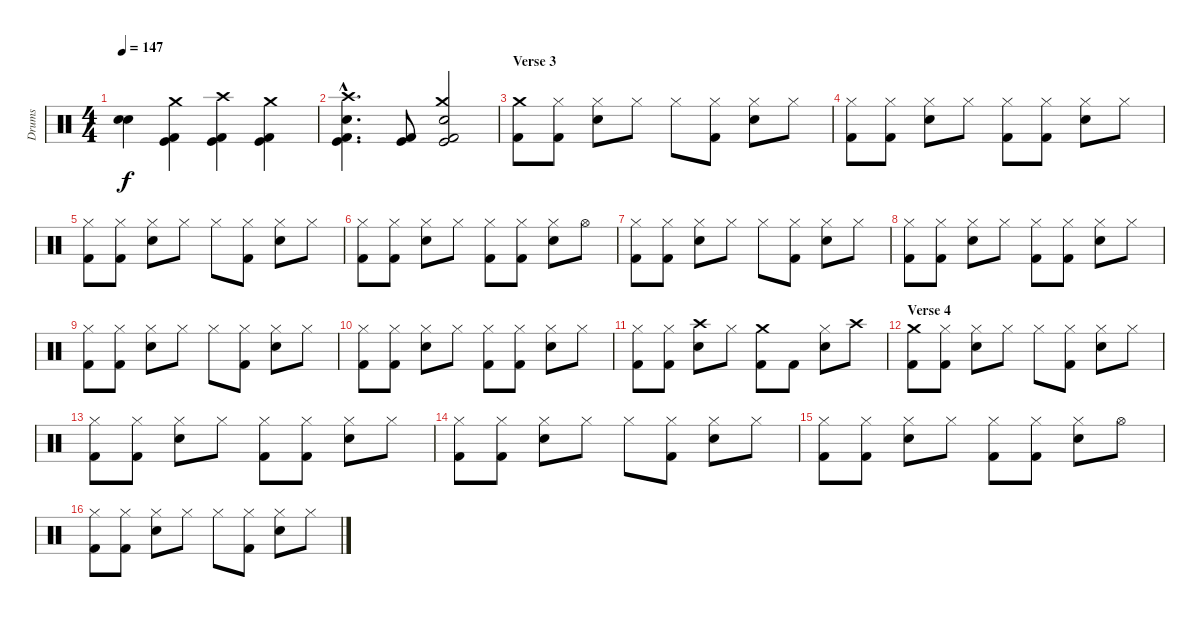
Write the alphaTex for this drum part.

\track ("Drums" "Drums") {instrument percussion}
\staff {score}
\articulation defaults
\ts (4 4)
\tempo 147
\clef neutral
\ks c
("Snare (hit)"{t} "Snare (hit)"{t}).4{dy f} ("Crash medium (hit)" "Kick (hit)" "Kick (hit) 2").4 ("Crash high (hit)" "Kick (hit)" "Kick (hit) 2").4 ("Crash medium (hit)" "Kick (hit)" "Kick (hit) 2").4 |
("Crash high (hit)"{hac} "Kick (hit) 2"{hac} "Kick (hit)"{hac} "Snare (hit) 2"{hac}).4{d} ("Kick (hit) 2" "Kick (hit)").8 ("Crash medium (hit)" "Kick (hit) 2" "Kick (hit)" "Snare (hit) 2").2 |
\section ("" "Verse 3")
("Crash medium (hit)" "Kick (hit) 2").8 ("Hi-Hat (closed)" "Kick (hit) 2").8 ("Hi-Hat (closed)" "Snare (hit) 2").8 "Hi-Hat (closed)".8 "Hi-Hat (closed)".8 ("Hi-Hat (closed)" "Kick (hit) 2").8 ("Hi-Hat (closed)" "Snare (hit) 2").8 "Hi-Hat (closed)".8 |
("Hi-Hat (closed)" "Kick (hit) 2").8 ("Hi-Hat (closed)" "Kick (hit) 2").8 ("Hi-Hat (closed)" "Snare (hit) 2").8 "Hi-Hat (closed)".8 ("Hi-Hat (closed)" "Kick (hit) 2").8 ("Hi-Hat (closed)" "Kick (hit) 2").8 ("Hi-Hat (closed)" "Snare (hit) 2").8 "Hi-Hat (closed)".8 |
("Hi-Hat (closed)" "Kick (hit) 2").8 ("Hi-Hat (closed)" "Kick (hit) 2").8 ("Hi-Hat (closed)" "Snare (hit) 2").8 "Hi-Hat (closed)".8 "Hi-Hat (closed)".8 ("Hi-Hat (closed)" "Kick (hit) 2").8 ("Hi-Hat (closed)" "Snare (hit) 2").8 "Hi-Hat (closed)".8 |
("Hi-Hat (closed)" "Kick (hit) 2").8 ("Hi-Hat (closed)" "Kick (hit) 2").8 ("Hi-Hat (closed)" "Snare (hit) 2").8 "Hi-Hat (closed)".8 ("Hi-Hat (closed)" "Kick (hit) 2").8 ("Hi-Hat (closed)" "Kick (hit) 2").8 ("Hi-Hat (closed)" "Snare (hit) 2").8 "Hi-Hat (open)".8 |
("Hi-Hat (closed)" "Kick (hit) 2").8 ("Hi-Hat (closed)" "Kick (hit) 2").8 ("Hi-Hat (closed)" "Snare (hit) 2").8 "Hi-Hat (closed)".8 "Hi-Hat (closed)".8 ("Hi-Hat (closed)" "Kick (hit) 2").8 ("Hi-Hat (closed)" "Snare (hit) 2").8 "Hi-Hat (closed)".8 |
("Hi-Hat (closed)" "Kick (hit) 2").8 ("Hi-Hat (closed)" "Kick (hit) 2").8 ("Hi-Hat (closed)" "Snare (hit) 2").8 "Hi-Hat (closed)".8 ("Hi-Hat (closed)" "Kick (hit) 2").8 ("Hi-Hat (closed)" "Kick (hit) 2").8 ("Hi-Hat (closed)" "Snare (hit) 2").8 "Hi-Hat (closed)".8 |
("Hi-Hat (closed)" "Kick (hit) 2").8 ("Hi-Hat (closed)" "Kick (hit) 2").8 ("Hi-Hat (closed)" "Snare (hit) 2").8 "Hi-Hat (closed)".8 "Hi-Hat (closed)".8 ("Hi-Hat (closed)" "Kick (hit) 2").8 ("Hi-Hat (closed)" "Snare (hit) 2").8 "Hi-Hat (closed)".8 |
("Hi-Hat (closed)" "Kick (hit) 2").8 ("Hi-Hat (closed)" "Kick (hit) 2").8 ("Hi-Hat (closed)" "Snare (hit) 2").8 "Hi-Hat (closed)".8 ("Hi-Hat (closed)" "Kick (hit) 2").8 ("Hi-Hat (closed)" "Kick (hit) 2").8 ("Hi-Hat (closed)" "Snare (hit) 2").8 "Hi-Hat (closed)".8 |
("Hi-Hat (closed)" "Kick (hit) 2").8 ("Hi-Hat (closed)" "Kick (hit) 2").8 ("Crash high (hit)" "Snare (hit) 2").8 "Hi-Hat (closed)".8 ("Crash medium (hit)" "Kick (hit) 2").8 "Kick (hit) 2".8 ("Hi-Hat (closed)" "Snare (hit) 2").8 "Crash high (hit)".8 |
\section ("" "Verse 4")
("Crash medium (hit)" "Kick (hit) 2").8 ("Hi-Hat (closed)" "Kick (hit) 2").8 ("Hi-Hat (closed)" "Snare (hit) 2").8 "Hi-Hat (closed)".8 "Hi-Hat (closed)".8 ("Hi-Hat (closed)" "Kick (hit) 2").8 ("Hi-Hat (closed)" "Snare (hit) 2").8 "Hi-Hat (closed)".8 |
("Hi-Hat (closed)" "Kick (hit) 2").8 ("Hi-Hat (closed)" "Kick (hit) 2").8 ("Hi-Hat (closed)" "Snare (hit) 2").8 "Hi-Hat (closed)".8 ("Hi-Hat (closed)" "Kick (hit) 2").8 ("Hi-Hat (closed)" "Kick (hit) 2").8 ("Hi-Hat (closed)" "Snare (hit) 2").8 "Hi-Hat (closed)".8 |
("Hi-Hat (closed)" "Kick (hit) 2").8 ("Hi-Hat (closed)" "Kick (hit) 2").8 ("Hi-Hat (closed)" "Snare (hit) 2").8 "Hi-Hat (closed)".8 "Hi-Hat (closed)".8 ("Hi-Hat (closed)" "Kick (hit) 2").8 ("Hi-Hat (closed)" "Snare (hit) 2").8 "Hi-Hat (closed)".8 |
("Hi-Hat (closed)" "Kick (hit) 2").8 ("Hi-Hat (closed)" "Kick (hit) 2").8 ("Hi-Hat (closed)" "Snare (hit) 2").8 "Hi-Hat (closed)".8 ("Hi-Hat (closed)" "Kick (hit) 2").8 ("Hi-Hat (closed)" "Kick (hit) 2").8 ("Hi-Hat (closed)" "Snare (hit) 2").8 "Hi-Hat (open)".8 |
("Hi-Hat (closed)" "Kick (hit) 2").8 ("Hi-Hat (closed)" "Kick (hit) 2").8 ("Hi-Hat (closed)" "Snare (hit) 2").8 "Hi-Hat (closed)".8 "Hi-Hat (closed)".8 ("Hi-Hat (closed)" "Kick (hit) 2").8 ("Hi-Hat (closed)" "Snare (hit) 2").8 "Hi-Hat (closed)".8
